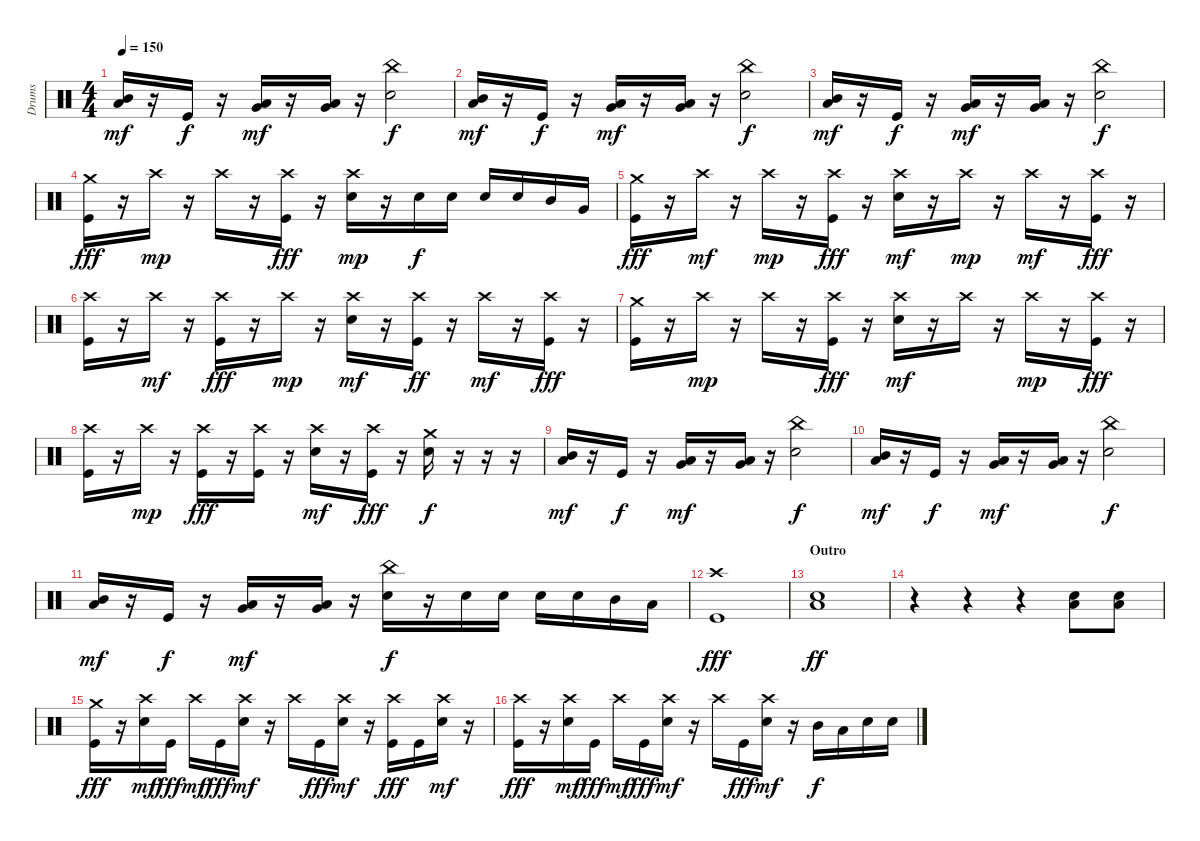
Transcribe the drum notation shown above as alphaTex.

\track ("Drums" "Drums") {instrument percussion}
\staff {score}
\articulation defaults
\ts (4 4)
\tempo 150
\clef neutral
\ks c
("Mid Tom (hit)" "Low Tom (hit)").16{dy mf} r.16 "Kick (hit)".16{dy f} r.16 ("Low Tom (hit)" "Very Low Tom (hit)").16{dy mf} r.16 ("Very Low Tom (hit)" "Low Floor Tom (hit)").16 r.16 ("China (hit)" "Electric Snare (hit)").2{dy f} |
("Mid Tom (hit)" "Low Tom (hit)").16{dy mf} r.16 "Kick (hit)".16{dy f} r.16 ("Low Tom (hit)" "Very Low Tom (hit)").16{dy mf} r.16 ("Very Low Tom (hit)" "Low Floor Tom (hit)").16 r.16 ("China (hit)" "Electric Snare (hit)").2{dy f} |
("Mid Tom (hit)" "Low Tom (hit)").16{dy mf} r.16 "Kick (hit)".16{dy f} r.16 ("Low Tom (hit)" "Very Low Tom (hit)").16{dy mf} r.16 ("Very Low Tom (hit)" "Low Floor Tom (hit)").16 r.16 ("China (hit)" "Electric Snare (hit)").2{dy f} |
("Crash medium (hit)" "Kick (hit)").16{dy fff} r.16 "Crash high (hit)".16{dy mp} r.16 "Crash high (hit)".16 r.16 ("Crash high (hit)" "Kick (hit)").16{dy fff} r.16 ("Crash high (hit)" "Electric Snare (hit)").16{dy mp} r.16 "Electric Snare (hit)".16{dy f} "Electric Snare (hit)".16 "Electric Snare (hit)".16 "Electric Snare (hit)".16 "Mid Tom (hit)".16 "Very Low Tom (hit)".16 |
("Crash medium (hit)" "Kick (hit)").16{dy fff} r.16 "Crash high (hit)".16{dy mf} r.16 "Crash high (hit)".16{dy mp} r.16 ("Crash high (hit)" "Kick (hit)").16{dy fff} r.16 ("Crash high (hit)" "Electric Snare (hit)").16{dy mf} r.16 "Crash high (hit)".16{dy mp} r.16 "Crash high (hit)".16{dy mf} r.16 ("Crash high (hit)" "Kick (hit)").16{dy fff} r.16 |
("Crash high (hit)" "Kick (hit)").16 r.16 "Crash high (hit)".16{dy mf} r.16 ("Crash high (hit)" "Kick (hit)").16{dy fff} r.16 "Crash high (hit)".16{dy mp} r.16 ("Crash high (hit)" "Electric Snare (hit)").16{dy mf} r.16 ("Crash high (hit)" "Kick (hit)").16{dy ff} r.16 "Crash high (hit)".16{dy mf} r.16 ("Crash high (hit)" "Kick (hit)").16{dy fff} r.16 |
("Crash medium (hit)" "Kick (hit)").16 r.16 "Crash high (hit)".16{dy mp} r.16 "Crash high (hit)".16 r.16 ("Crash high (hit)" "Kick (hit)").16{dy fff} r.16 ("Crash high (hit)" "Electric Snare (hit)").16{dy mf} r.16 "Crash high (hit)".16 r.16 "Crash high (hit)".16{dy mp} r.16 ("Crash high (hit)" "Kick (hit)").16{dy fff} r.16 |
("Crash high (hit)" "Kick (hit)").16 r.16 "Crash high (hit)".16{dy mp} r.16 ("Crash high (hit)" "Kick (hit)").16{dy fff} r.16 ("Crash high (hit)" "Kick (hit)").16 r.16 ("Crash high (hit)" "Electric Snare (hit)").16{dy mf} r.16 ("Crash high (hit)" "Kick (hit)").16{dy fff} r.16 ("Crash medium (hit)" "Electric Snare (hit)").16{dy f} r.16 r.16 r.16 |
("Mid Tom (hit)" "Low Tom (hit)").16{dy mf} r.16 "Kick (hit)".16{dy f} r.16 ("Low Tom (hit)" "Very Low Tom (hit)").16{dy mf} r.16 ("Very Low Tom (hit)" "Low Floor Tom (hit)").16 r.16 ("China (hit)" "Electric Snare (hit)").2{dy f} |
("Mid Tom (hit)" "Low Tom (hit)").16{dy mf} r.16 "Kick (hit)".16{dy f} r.16 ("Low Tom (hit)" "Very Low Tom (hit)").16{dy mf} r.16 ("Very Low Tom (hit)" "Low Floor Tom (hit)").16 r.16 ("China (hit)" "Electric Snare (hit)").2{dy f} |
("Mid Tom (hit)" "Low Tom (hit)").16{dy mf} r.16 "Kick (hit)".16{dy f} r.16 ("Low Tom (hit)" "Very Low Tom (hit)").16{dy mf} r.16 ("Very Low Tom (hit)" "Low Floor Tom (hit)").16 r.16 ("China (hit)" "Electric Snare (hit)").16{dy f} r.16 "Electric Snare (hit)".16 "Electric Snare (hit)".16 "Electric Snare (hit)".16 "Electric Snare (hit)".16 "Mid Tom (hit)".16 "Low Tom (hit)".16 |
("Crash high (hit)" "Kick (hit)").1{dy fff} |
\section ("" "Outro")
("Electric Snare (hit)" "Low Floor Tom (hit)").1{dy ff} |
r.4 r.4 r.4 ("Electric Snare (hit)" "Low Floor Tom (hit)").8 ("Electric Snare (hit)" "Low Floor Tom (hit)").8 |
("Crash medium (hit)" "Kick (hit)").16{dy fff} r.16 ("Crash high (hit)" "Electric Snare (hit)").16{dy mf} "Kick (hit)".16{dy fff} "Crash high (hit)".16{dy mf} "Kick (hit)".16{dy fff} ("Crash high (hit)" "Electric Snare (hit)").16{dy mf} r.16 "Crash high (hit)".16 "Kick (hit)".16{dy fff} ("Crash high (hit)" "Electric Snare (hit)").16{dy mf} r.16 ("Crash high (hit)" "Kick (hit)").16{dy fff} "Kick (hit)".16 ("Crash high (hit)" "Electric Snare (hit)").16{dy mf} r.16 |
("Crash high (hit)" "Kick (hit)").16{dy fff} r.16 ("Crash high (hit)" "Electric Snare (hit)").16{dy mf} "Kick (hit)".16{dy fff} "Crash high (hit)".16{dy mf} "Kick (hit)".16{dy fff} ("Crash high (hit)" "Electric Snare (hit)").16{dy mf} r.16 "Crash high (hit)".16 "Kick (hit)".16{dy fff} ("Crash high (hit)" "Electric Snare (hit)").16{dy mf} r.16 "Mid Tom (hit)".16{dy f} "Low Tom (hit)".16 "Electric Snare (hit)".16 "Electric Snare (hit)".16
